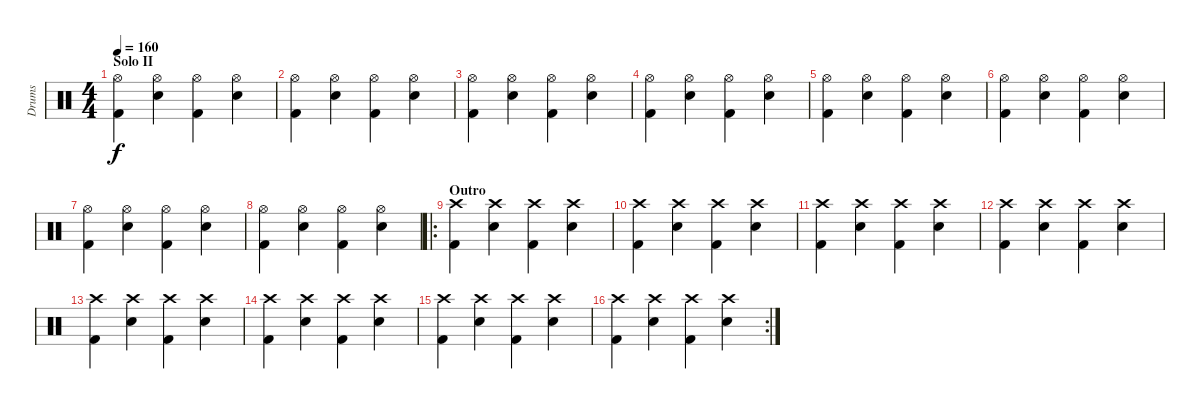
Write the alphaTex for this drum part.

\track ("Drums" "Drums") {instrument percussion}
\staff {score}
\articulation defaults
\ts (4 4)
\section ("" "Solo II")
\tempo 160
\clef neutral
\ks c
("Hi-Hat (open)" "Kick (hit) 2").4{dy f} ("Hi-Hat (open)" "Snare (hit) 2").4 ("Hi-Hat (open)" "Kick (hit) 2").4 ("Hi-Hat (open)" "Snare (hit) 2").4 |
("Hi-Hat (open)" "Kick (hit) 2").4 ("Hi-Hat (open)" "Snare (hit) 2").4 ("Hi-Hat (open)" "Kick (hit) 2").4 ("Hi-Hat (open)" "Snare (hit) 2").4 |
("Hi-Hat (open)" "Kick (hit) 2").4 ("Hi-Hat (open)" "Snare (hit) 2").4 ("Hi-Hat (open)" "Kick (hit) 2").4 ("Hi-Hat (open)" "Snare (hit) 2").4 |
("Hi-Hat (open)" "Kick (hit) 2").4 ("Hi-Hat (open)" "Snare (hit) 2").4 ("Hi-Hat (open)" "Kick (hit) 2").4 ("Hi-Hat (open)" "Snare (hit) 2").4 |
("Hi-Hat (open)" "Kick (hit) 2").4 ("Hi-Hat (open)" "Snare (hit) 2").4 ("Hi-Hat (open)" "Kick (hit) 2").4 ("Hi-Hat (open)" "Snare (hit) 2").4 |
("Hi-Hat (open)" "Kick (hit) 2").4 ("Hi-Hat (open)" "Snare (hit) 2").4 ("Hi-Hat (open)" "Kick (hit) 2").4 ("Hi-Hat (open)" "Snare (hit) 2").4 |
("Hi-Hat (open)" "Kick (hit) 2").4 ("Hi-Hat (open)" "Snare (hit) 2").4 ("Hi-Hat (open)" "Kick (hit) 2").4 ("Hi-Hat (open)" "Snare (hit) 2").4 |
("Hi-Hat (open)" "Kick (hit) 2").4 ("Hi-Hat (open)" "Snare (hit) 2").4 ("Hi-Hat (open)" "Kick (hit) 2").4 ("Hi-Hat (open)" "Snare (hit) 2").4 |
\ro
\section ("" "Outro")
("Crash high (hit)" "Kick (hit) 2").4 ("Crash high (hit)" "Snare (hit) 2").4 ("Crash high (hit)" "Kick (hit) 2").4 ("Crash high (hit)" "Snare (hit) 2").4 |
("Crash high (hit)" "Kick (hit) 2").4 ("Crash high (hit)" "Snare (hit) 2").4 ("Crash high (hit)" "Kick (hit) 2").4 ("Crash high (hit)" "Snare (hit) 2").4 |
("Crash high (hit)" "Kick (hit) 2").4 ("Crash high (hit)" "Snare (hit) 2").4 ("Crash high (hit)" "Kick (hit) 2").4 ("Crash high (hit)" "Snare (hit) 2").4 |
("Crash high (hit)" "Kick (hit) 2").4 ("Crash high (hit)" "Snare (hit) 2").4 ("Crash high (hit)" "Kick (hit) 2").4 ("Crash high (hit)" "Snare (hit) 2").4 |
("Crash high (hit)" "Kick (hit) 2").4 ("Crash high (hit)" "Snare (hit) 2").4 ("Crash high (hit)" "Kick (hit) 2").4 ("Crash high (hit)" "Snare (hit) 2").4 |
("Crash high (hit)" "Kick (hit) 2").4 ("Crash high (hit)" "Snare (hit) 2").4 ("Crash high (hit)" "Kick (hit) 2").4 ("Crash high (hit)" "Snare (hit) 2").4 |
("Crash high (hit)" "Kick (hit) 2").4 ("Crash high (hit)" "Snare (hit) 2").4 ("Crash high (hit)" "Kick (hit) 2").4 ("Crash high (hit)" "Snare (hit) 2").4 |
\rc 2
("Crash high (hit)" "Kick (hit) 2").4 ("Crash high (hit)" "Snare (hit) 2").4 ("Crash high (hit)" "Kick (hit) 2").4 ("Crash high (hit)" "Snare (hit) 2").4
